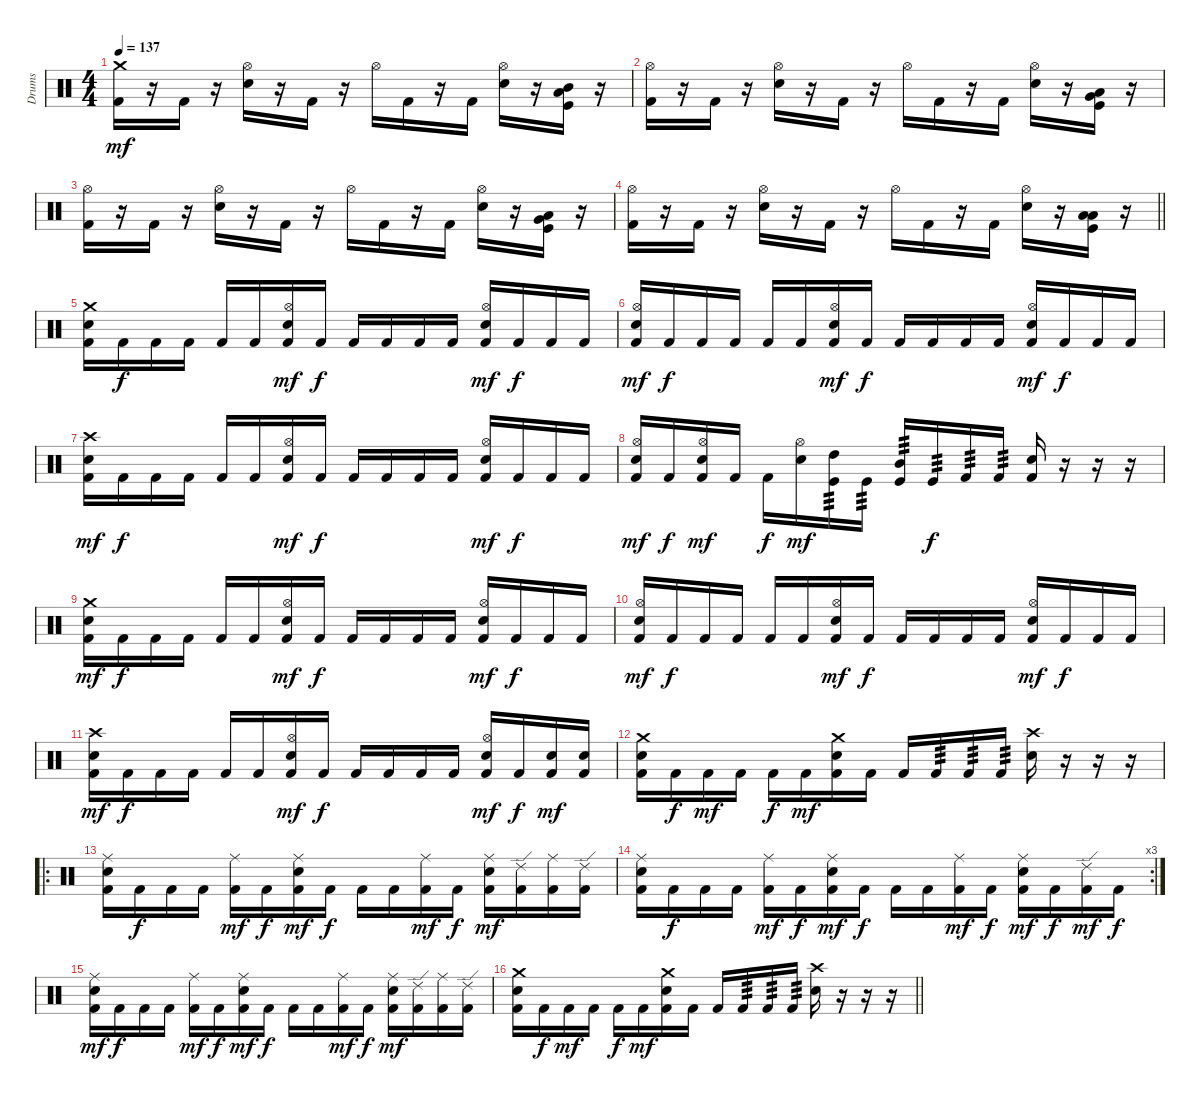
\track ("Drums" "Drums") {instrument percussion}
\staff {score}
\articulation defaults
\ts (4 4)
\tempo 137
\clef neutral
\ks c
("Crash medium (hit)" "Kick (hit) 2").16{dy mf} r.16 "Kick (hit) 2".16 r.16 ("Hi-Hat (open)" "Electric Snare (hit)").16 r.16 "Kick (hit) 2".16 r.16 "Hi-Hat (open)".16 "Kick (hit) 2".16 r.16 "Kick (hit) 2".16 ("Hi-Hat (open)" "Electric Snare (hit)").16 r.16 ("Mid Tom (hit)" "Low Tom (hit)" "Kick (hit)").16 r.16 |
("Hi-Hat (open)" "Kick (hit) 2").16 r.16 "Kick (hit) 2".16 r.16 ("Hi-Hat (open)" "Electric Snare (hit)").16 r.16 "Kick (hit) 2".16 r.16 "Hi-Hat (open)".16 "Kick (hit) 2".16 r.16 "Kick (hit) 2".16 ("Hi-Hat (open)" "Electric Snare (hit)").16 r.16 ("Low Tom (hit)" "Very Low Tom (hit)" "Kick (hit)").16 r.16 |
("Hi-Hat (open)" "Kick (hit) 2").16 r.16 "Kick (hit) 2".16 r.16 ("Hi-Hat (open)" "Electric Snare (hit)").16 r.16 "Kick (hit) 2".16 r.16 "Hi-Hat (open)".16 "Kick (hit) 2".16 r.16 "Kick (hit) 2".16 ("Hi-Hat (open)" "Electric Snare (hit)").16 r.16 ("Very Low Tom (hit)" "Low Floor Tom (hit)" "Kick (hit)").16 r.16 |
\barLineRight lightlight
("Hi-Hat (open)" "Kick (hit) 2").16 r.16 "Kick (hit) 2".16 r.16 ("Hi-Hat (open)" "Electric Snare (hit)").16 r.16 "Kick (hit) 2".16 r.16 "Hi-Hat (open)".16 "Kick (hit) 2".16 r.16 "Kick (hit) 2".16 ("Hi-Hat (open)" "Electric Snare (hit)").16 r.16 ("Low Floor Tom (hit)" "Low Floor Tom (hit)" "Kick (hit)").16 r.16 |
("Crash medium (hit)" "Electric Snare (hit)" "Kick (hit) 2").16 "Kick (hit) 2".16{dy f} "Kick (hit) 2".16 "Kick (hit) 2".16 "Kick (hit) 2".16 "Kick (hit) 2".16 ("Hi-Hat (open)" "Electric Snare (hit)" "Kick (hit) 2").16{dy mf} "Kick (hit) 2".16{dy f} "Kick (hit) 2".16 "Kick (hit) 2".16 "Kick (hit) 2".16 "Kick (hit) 2".16 ("Hi-Hat (open)" "Electric Snare (hit)" "Kick (hit) 2").16{dy mf} "Kick (hit) 2".16{dy f} "Kick (hit) 2".16 "Kick (hit) 2".16 |
("Hi-Hat (open)" "Electric Snare (hit)" "Kick (hit) 2").16{dy mf} "Kick (hit) 2".16{dy f} "Kick (hit) 2".16 "Kick (hit) 2".16 "Kick (hit) 2".16 "Kick (hit) 2".16 ("Hi-Hat (open)" "Electric Snare (hit)" "Kick (hit) 2").16{dy mf} "Kick (hit) 2".16{dy f} "Kick (hit) 2".16 "Kick (hit) 2".16 "Kick (hit) 2".16 "Kick (hit) 2".16 ("Hi-Hat (open)" "Electric Snare (hit)" "Kick (hit) 2").16{dy mf} "Kick (hit) 2".16{dy f} "Kick (hit) 2".16 "Kick (hit) 2".16 |
("Crash high (hit)" "Electric Snare (hit)" "Kick (hit) 2").16{dy mf} "Kick (hit) 2".16{dy f} "Kick (hit) 2".16 "Kick (hit) 2".16 "Kick (hit) 2".16 "Kick (hit) 2".16 ("Hi-Hat (open)" "Electric Snare (hit)" "Kick (hit) 2").16{dy mf} "Kick (hit) 2".16{dy f} "Kick (hit) 2".16 "Kick (hit) 2".16 "Kick (hit) 2".16 "Kick (hit) 2".16 ("Hi-Hat (open)" "Electric Snare (hit)" "Kick (hit) 2").16{dy mf} "Kick (hit) 2".16{dy f} "Kick (hit) 2".16 "Kick (hit) 2".16 |
("Hi-Hat (open)" "Electric Snare (hit)" "Kick (hit) 2").16{dy mf} "Kick (hit) 2".16{dy f} ("Hi-Hat (open)" "Electric Snare (hit)" "Kick (hit) 2").16{dy mf} "Kick (hit) 2".16 "Kick (hit) 2".16{dy f} ("Hi-Hat (open)" "Electric Snare (hit)").16{dy mf} ("High Tom (hit)" "Kick (hit)").16{tp 3} "Kick (hit)".16{tp 3} ("Mid Tom (hit)" "Kick (hit)").16{tp 3} "Kick (hit)".16{tp 3 dy f} "Kick (hit) 2".16{tp 3} "Kick (hit) 2".16{tp 3} ("Electric Snare (hit)" "Kick (hit) 2").16 r.16 r.16 r.16 |
("Crash medium (hit)" "Electric Snare (hit)" "Kick (hit) 2").16{dy mf} "Kick (hit) 2".16{dy f} "Kick (hit) 2".16 "Kick (hit) 2".16 "Kick (hit) 2".16 "Kick (hit) 2".16 ("Hi-Hat (open)" "Electric Snare (hit)" "Kick (hit) 2").16{dy mf} "Kick (hit) 2".16{dy f} "Kick (hit) 2".16 "Kick (hit) 2".16 "Kick (hit) 2".16 "Kick (hit) 2".16 ("Hi-Hat (open)" "Electric Snare (hit)" "Kick (hit) 2").16{dy mf} "Kick (hit) 2".16{dy f} "Kick (hit) 2".16 "Kick (hit) 2".16 |
("Hi-Hat (open)" "Electric Snare (hit)" "Kick (hit) 2").16{dy mf} "Kick (hit) 2".16{dy f} "Kick (hit) 2".16 "Kick (hit) 2".16 "Kick (hit) 2".16 "Kick (hit) 2".16 ("Hi-Hat (open)" "Electric Snare (hit)" "Kick (hit) 2").16{dy mf} "Kick (hit) 2".16{dy f} "Kick (hit) 2".16 "Kick (hit) 2".16 "Kick (hit) 2".16 "Kick (hit) 2".16 ("Hi-Hat (open)" "Electric Snare (hit)" "Kick (hit) 2").16{dy mf} "Kick (hit) 2".16{dy f} "Kick (hit) 2".16 "Kick (hit) 2".16 |
("Crash high (hit)" "Electric Snare (hit)" "Kick (hit) 2").16{dy mf} "Kick (hit) 2".16{dy f} "Kick (hit) 2".16 "Kick (hit) 2".16 "Kick (hit) 2".16 "Kick (hit) 2".16 ("Hi-Hat (open)" "Electric Snare (hit)" "Kick (hit) 2").16{dy mf} "Kick (hit) 2".16{dy f} "Kick (hit) 2".16 "Kick (hit) 2".16 "Kick (hit) 2".16 "Kick (hit) 2".16 ("Hi-Hat (open)" "Electric Snare (hit)" "Kick (hit) 2").16{dy mf} "Kick (hit) 2".16{dy f} ("Electric Snare (hit)" "Kick (hit) 2").16{dy mf} ("Electric Snare (hit)" "Kick (hit) 2").16 |
("Crash medium (hit)" "Electric Snare (hit)" "Kick (hit) 2").16 "Kick (hit) 2".16{dy f} "Kick (hit) 2".16{dy mf} "Kick (hit) 2".16 "Kick (hit) 2".16{dy f} "Kick (hit) 2".16{dy mf} ("Crash medium (hit)" "Electric Snare (hit)" "Kick (hit) 2").16 "Kick (hit) 2".16 "Kick (hit) 2".16 "Kick (hit) 2".16{tp 3} "Kick (hit) 2".16{tp 3} "Kick (hit) 2".16{tp 3} ("Crash high (hit)" "Electric Snare (hit)").16 r.16 r.16 r.16 |
\ro
("Ride (middle)" "Electric Snare (hit)" "Kick (hit) 2").16 "Kick (hit) 2".16{dy f} "Kick (hit) 2".16 "Kick (hit) 2".16 ("Ride (middle)" "Kick (hit) 2").16{dy mf} "Kick (hit) 2".16{dy f} ("Ride (middle)" "Electric Snare (hit)" "Kick (hit) 2").16{dy mf} "Kick (hit) 2".16{dy f} "Kick (hit) 2".16 "Kick (hit) 2".16 ("Ride (middle)" "Kick (hit) 2").16{dy mf} "Kick (hit) 2".16{dy f} ("Ride (middle)" "Electric Snare (hit)" "Kick (hit) 2").16{dy mf} ("Ride (edge) 2" "Kick (hit) 2").16 ("Ride (middle)" "Kick (hit) 2").16 ("Ride (edge) 2" "Kick (hit) 2").16 |
\rc 3
("Ride (middle)" "Electric Snare (hit)" "Kick (hit) 2").16 "Kick (hit) 2".16{dy f} "Kick (hit) 2".16 "Kick (hit) 2".16 ("Ride (middle)" "Kick (hit) 2").16{dy mf} "Kick (hit) 2".16{dy f} ("Ride (middle)" "Electric Snare (hit)" "Kick (hit) 2").16{dy mf} "Kick (hit) 2".16{dy f} "Kick (hit) 2".16 "Kick (hit) 2".16 ("Ride (middle)" "Kick (hit) 2").16{dy mf} "Kick (hit) 2".16{dy f} ("Ride (middle)" "Electric Snare (hit)" "Kick (hit) 2").16{dy mf} "Kick (hit) 2".16{dy f} ("Ride (edge) 2" "Kick (hit) 2").16{dy mf} "Kick (hit) 2".16{dy f} |
("Ride (middle)" "Electric Snare (hit)" "Kick (hit) 2").16{dy mf} "Kick (hit) 2".16{dy f} "Kick (hit) 2".16 "Kick (hit) 2".16 ("Ride (middle)" "Kick (hit) 2").16{dy mf} "Kick (hit) 2".16{dy f} ("Ride (middle)" "Electric Snare (hit)" "Kick (hit) 2").16{dy mf} "Kick (hit) 2".16{dy f} "Kick (hit) 2".16 "Kick (hit) 2".16 ("Ride (middle)" "Kick (hit) 2").16{dy mf} "Kick (hit) 2".16{dy f} ("Ride (middle)" "Electric Snare (hit)" "Kick (hit) 2").16{dy mf} ("Ride (edge) 2" "Kick (hit) 2").16 ("Ride (middle)" "Kick (hit) 2").16 ("Ride (edge) 2" "Kick (hit) 2").16 |
\barLineRight lightlight
("Crash medium (hit)" "Electric Snare (hit)" "Kick (hit) 2").16 "Kick (hit) 2".16{dy f} "Kick (hit) 2".16{dy mf} "Kick (hit) 2".16 "Kick (hit) 2".16{dy f} "Kick (hit) 2".16{dy mf} ("Crash medium (hit)" "Electric Snare (hit)" "Kick (hit) 2").16 "Kick (hit) 2".16 "Kick (hit) 2".16 "Kick (hit) 2".16{tp 3} "Kick (hit) 2".16{tp 3} "Kick (hit) 2".16{tp 3} ("Crash high (hit)" "Electric Snare (hit)").16 r.16 r.16 r.16
